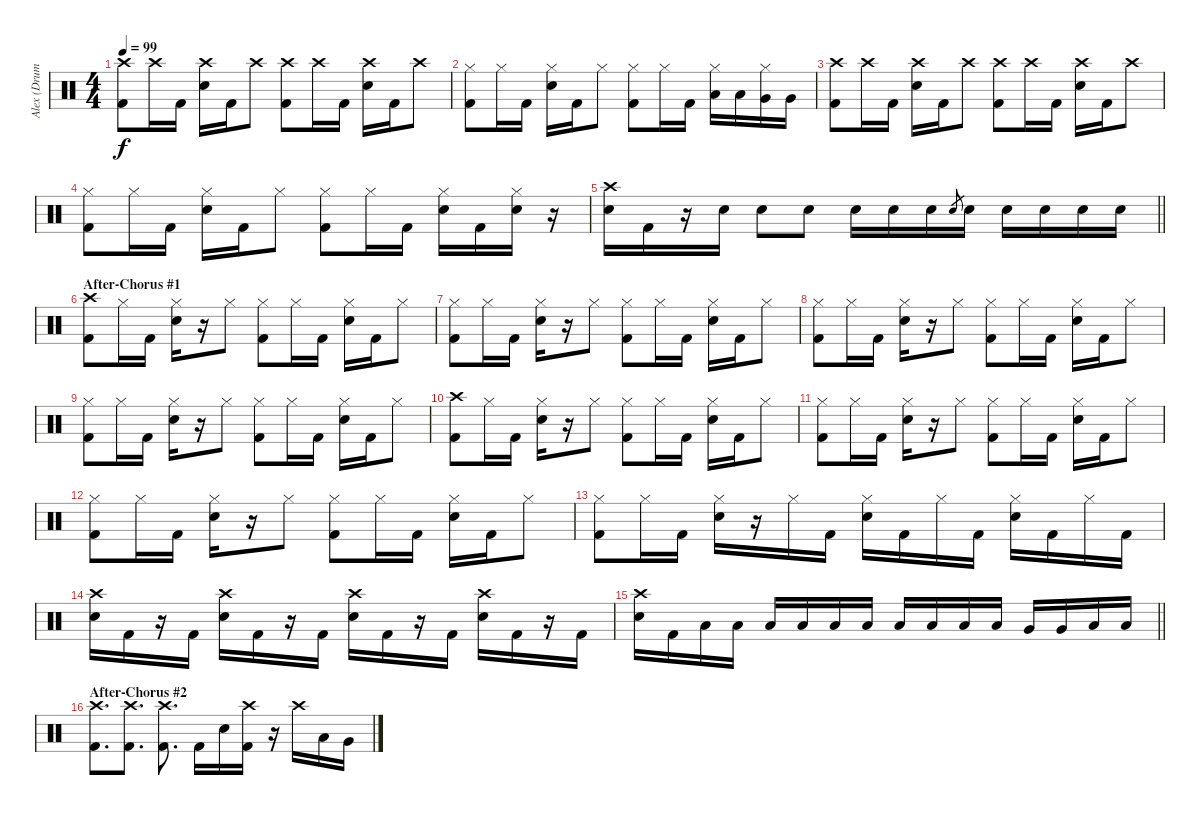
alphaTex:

\track ("Alex (Drums)" "Alex (Drum") {instrument percussion}
\staff {score}
\articulation defaults
\ts (4 4)
\tempo 99
\clef neutral
\ks c
("Crash high (hit)" "Kick (hit) 2").8{dy f} "Crash high (hit)".16 "Kick (hit) 2".16 ("Crash high (hit)" "Snare (hit) 2").16 "Kick (hit) 2".16 "Crash high (hit)".8 ("Crash high (hit)" "Kick (hit) 2").8 "Crash high (hit)".16 "Kick (hit) 2".16 ("Crash high (hit)" "Snare (hit) 2").16 "Kick (hit) 2".16 "Crash high (hit)".8 |
("Hi-Hat (closed)" "Kick (hit) 2").8 "Hi-Hat (closed)".16 "Kick (hit) 2".16 ("Hi-Hat (closed)" "Snare (hit) 2").16 "Kick (hit) 2".16 "Hi-Hat (closed)".8 ("Hi-Hat (closed)" "Kick (hit) 2").8 "Hi-Hat (closed)".16 "Kick (hit) 2".16 ("Hi-Hat (closed)" "Low Tom (hit)").16 "Low Tom (hit)".16 ("Hi-Hat (closed)" "Very Low Tom (hit)").16 "Very Low Tom (hit)".16 |
("Crash high (hit)" "Kick (hit) 2").8 "Crash high (hit)".16 "Kick (hit) 2".16 ("Crash high (hit)" "Snare (hit) 2").16 "Kick (hit) 2".16 "Crash high (hit)".8 ("Crash high (hit)" "Kick (hit) 2").8 "Crash high (hit)".16 "Kick (hit) 2".16 ("Crash high (hit)" "Snare (hit) 2").16 "Kick (hit) 2".16 "Crash high (hit)".8 |
("Hi-Hat (closed)" "Kick (hit) 2").8 "Hi-Hat (closed)".16 "Kick (hit) 2".16 ("Hi-Hat (closed)" "Snare (hit) 2").16 "Kick (hit) 2".16 "Hi-Hat (closed)".8 ("Hi-Hat (closed)" "Kick (hit) 2").8 "Hi-Hat (closed)".16 "Kick (hit) 2".16 ("Hi-Hat (closed)" "Snare (hit) 2").16 "Kick (hit) 2".16 ("Hi-Hat (closed)" "Snare (hit) 2").16 r.16 |
\barLineRight lightlight
("Crash high (hit)" "Snare (hit) 2").16 "Kick (hit) 2".16 r.16 "Snare (hit) 2".16 "Snare (hit) 2".8 "Snare (hit) 2".8 "Snare (hit) 2".16 "Snare (hit) 2".16 "Snare (hit) 2".16 "Snare (hit) 2".8{gr} "Snare (hit) 2".16 "Snare (hit) 2".16 "Snare (hit) 2".16 "Snare (hit) 2".16 "Snare (hit) 2".16 |
\section ("" "After-Chorus #1")
("Crash high (hit)" "Kick (hit) 2").8 "Hi-Hat (closed)".16 "Kick (hit) 2".16 ("Hi-Hat (closed)" "Snare (hit) 2").16 r.16 "Hi-Hat (closed)".8 ("Hi-Hat (closed)" "Kick (hit) 2").8 "Hi-Hat (closed)".16 "Kick (hit) 2".16 ("Hi-Hat (closed)" "Snare (hit) 2").16 "Kick (hit) 2".16 "Hi-Hat (closed)".8 |
("Hi-Hat (closed)" "Kick (hit) 2").8 "Hi-Hat (closed)".16 "Kick (hit) 2".16 ("Hi-Hat (closed)" "Snare (hit) 2").16 r.16 "Hi-Hat (closed)".8 ("Hi-Hat (closed)" "Kick (hit) 2").8 "Hi-Hat (closed)".16 "Kick (hit) 2".16 ("Hi-Hat (closed)" "Snare (hit) 2").16 "Kick (hit) 2".16 "Hi-Hat (closed)".8 |
("Hi-Hat (closed)" "Kick (hit) 2").8 "Hi-Hat (closed)".16 "Kick (hit) 2".16 ("Hi-Hat (closed)" "Snare (hit) 2").16 r.16 "Hi-Hat (closed)".8 ("Hi-Hat (closed)" "Kick (hit) 2").8 "Hi-Hat (closed)".16 "Kick (hit) 2".16 ("Hi-Hat (closed)" "Snare (hit) 2").16 "Kick (hit) 2".16 "Hi-Hat (closed)".8 |
("Hi-Hat (closed)" "Kick (hit) 2").8 "Hi-Hat (closed)".16 "Kick (hit) 2".16 ("Hi-Hat (closed)" "Snare (hit) 2").16 r.16 "Hi-Hat (closed)".8 ("Hi-Hat (closed)" "Kick (hit) 2").8 "Hi-Hat (closed)".16 "Kick (hit) 2".16 ("Hi-Hat (closed)" "Snare (hit) 2").16 "Kick (hit) 2".16 "Hi-Hat (closed)".8 |
("Crash high (hit)" "Kick (hit) 2").8 "Hi-Hat (closed)".16 "Kick (hit) 2".16 ("Hi-Hat (closed)" "Snare (hit) 2").16 r.16 "Hi-Hat (closed)".8 ("Hi-Hat (closed)" "Kick (hit) 2").8 "Hi-Hat (closed)".16 "Kick (hit) 2".16 ("Hi-Hat (closed)" "Snare (hit) 2").16 "Kick (hit) 2".16 "Hi-Hat (closed)".8 |
("Hi-Hat (closed)" "Kick (hit) 2").8 "Hi-Hat (closed)".16 "Kick (hit) 2".16 ("Hi-Hat (closed)" "Snare (hit) 2").16 r.16 "Hi-Hat (closed)".8 ("Hi-Hat (closed)" "Kick (hit) 2").8 "Hi-Hat (closed)".16 "Kick (hit) 2".16 ("Hi-Hat (closed)" "Snare (hit) 2").16 "Kick (hit) 2".16 "Hi-Hat (closed)".8 |
("Hi-Hat (closed)" "Kick (hit) 2").8 "Hi-Hat (closed)".16 "Kick (hit) 2".16 ("Hi-Hat (closed)" "Snare (hit) 2").16 r.16 "Hi-Hat (closed)".8 ("Hi-Hat (closed)" "Kick (hit) 2").8 "Hi-Hat (closed)".16 "Kick (hit) 2".16 ("Hi-Hat (closed)" "Snare (hit) 2").16 "Kick (hit) 2".16 "Hi-Hat (closed)".8 |
("Hi-Hat (closed)" "Kick (hit) 2").8 "Hi-Hat (closed)".16 "Kick (hit) 2".16 ("Hi-Hat (closed)" "Snare (hit) 2").16 r.16 "Hi-Hat (closed)".16 "Kick (hit) 2".16 ("Hi-Hat (closed)" "Snare (hit) 2").16 "Kick (hit) 2".16 "Hi-Hat (closed)".16 "Kick (hit) 2".16 ("Hi-Hat (closed)" "Snare (hit) 2").16 "Kick (hit) 2".16 "Hi-Hat (closed)".16 "Kick (hit) 2".16 |
("Crash high (hit)" "Snare (hit) 2").16 "Kick (hit) 2".16 r.16 "Kick (hit) 2".16 ("Crash high (hit)" "Snare (hit) 2").16 "Kick (hit) 2".16 r.16 "Kick (hit) 2".16 ("Crash high (hit)" "Snare (hit) 2").16 "Kick (hit) 2".16 r.16 "Kick (hit) 2".16 ("Crash high (hit)" "Snare (hit) 2").16 "Kick (hit) 2".16 r.16 "Kick (hit) 2".16 |
\barLineRight lightlight
("Crash high (hit)" "Snare (hit) 2").16 "Kick (hit) 2".16 "Low Floor Tom (hit)".16 "Low Tom (hit)".16 "Low Tom (hit)".16 "Low Tom (hit)".16 "Low Tom (hit)".16 "Low Tom (hit)".16 "Low Tom (hit)".16 "Low Tom (hit)".16 "Low Tom (hit)".16 "Low Tom (hit)".16 "Very Low Tom (hit)".16 "Very Low Tom (hit)".16 "Low Floor Tom (hit)".16 "Low Floor Tom (hit)".16 |
\section ("" "After-Chorus #2")
("Crash high (hit)" "Kick (hit) 2").8{d} ("Crash high (hit)" "Kick (hit) 2").8{d} ("Crash high (hit)" "Kick (hit) 2").8{d} "Kick (hit) 2".16 "Snare (hit) 2".16 ("Crash high (hit)" "Kick (hit) 2").16 r.16 "Crash high (hit)".16 "Low Tom (hit)".16 "Very Low Tom (hit)".16
